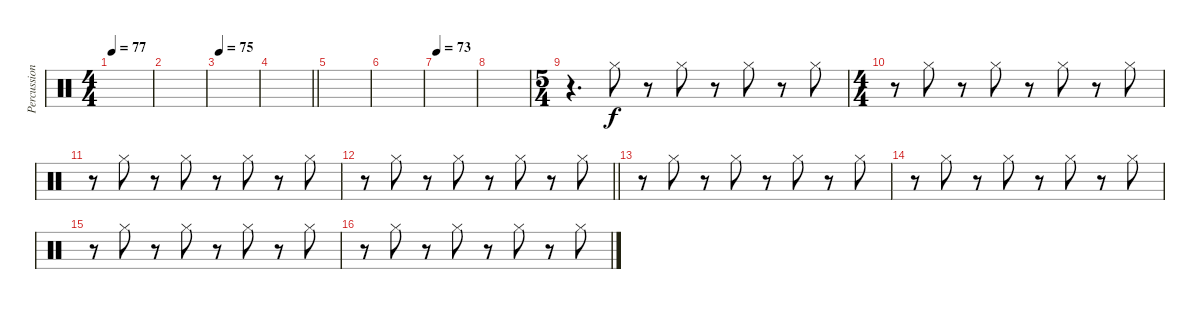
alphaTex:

\track ("Percussion" "Percussion") {instrument percussion}
\staff {score}
\articulation defaults
\ts (4 4)
\tempo 77
\clef neutral
\ks c
|
|
\tempo 75
|
\barLineRight lightlight
|
|
|
\tempo 73
|
|
\ts (5 4)
r.4{d} "Hi-Hat (closed)".8 r.8 "Hi-Hat (closed)".8 r.8 "Hi-Hat (closed)".8 r.8 "Hi-Hat (closed)".8 |
\ts (4 4)
r.8 "Hi-Hat (closed)".8 r.8 "Hi-Hat (closed)".8 r.8 "Hi-Hat (closed)".8 r.8 "Hi-Hat (closed)".8 |
r.8 "Hi-Hat (closed)".8 r.8 "Hi-Hat (closed)".8 r.8 "Hi-Hat (closed)".8 r.8 "Hi-Hat (closed)".8 |
\barLineRight lightlight
r.8 "Hi-Hat (closed)".8 r.8 "Hi-Hat (closed)".8 r.8 "Hi-Hat (closed)".8 r.8 "Hi-Hat (closed)".8 |
r.8 "Hi-Hat (closed)".8 r.8 "Hi-Hat (closed)".8 r.8 "Hi-Hat (closed)".8 r.8 "Hi-Hat (closed)".8 |
r.8 "Hi-Hat (closed)".8 r.8 "Hi-Hat (closed)".8 r.8 "Hi-Hat (closed)".8 r.8 "Hi-Hat (closed)".8 |
r.8 "Hi-Hat (closed)".8 r.8 "Hi-Hat (closed)".8 r.8 "Hi-Hat (closed)".8 r.8 "Hi-Hat (closed)".8 |
r.8 "Hi-Hat (closed)".8 r.8 "Hi-Hat (closed)".8 r.8 "Hi-Hat (closed)".8 r.8 "Hi-Hat (closed)".8
